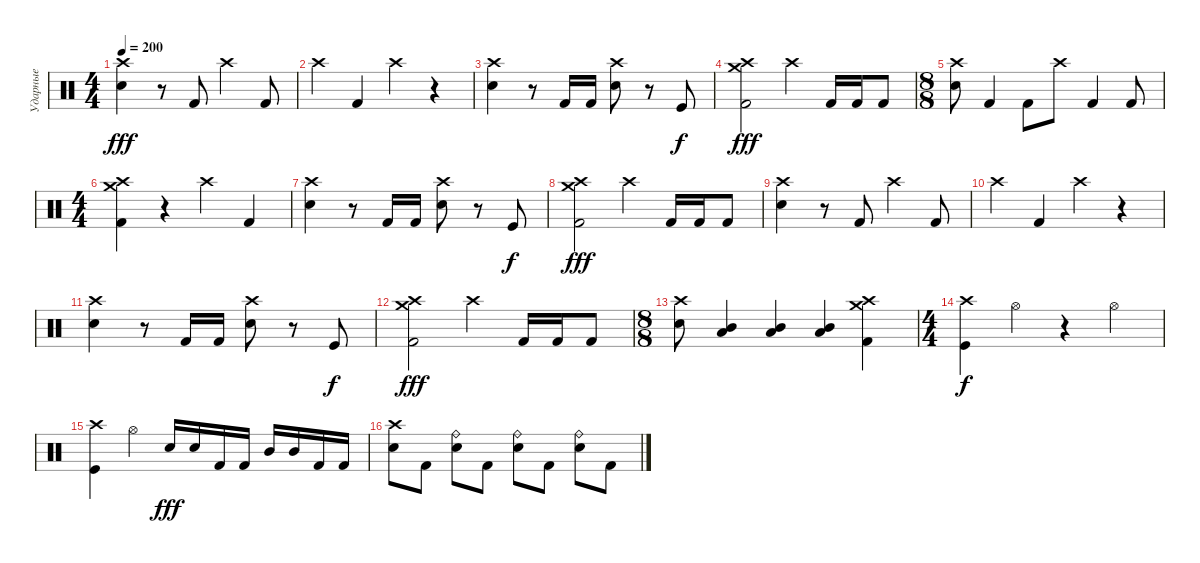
\track ("Ударные" "Ударные") {instrument percussion}
\staff {score}
\articulation defaults
\ts (4 4)
\tempo 200
\clef neutral
\ks c
("Crash high (hit)" "Electric Snare (hit)").4{dy fff} r.8 "Kick (hit) 2".8 "Crash high (hit)".4 "Kick (hit) 2".8 |
"Crash high (hit)".4 "Kick (hit) 2".4 "Crash high (hit)".4 r.4 |
("Crash high (hit)" "Electric Snare (hit)").4 r.8 "Kick (hit) 2".16 "Kick (hit) 2".16 ("Crash high (hit)" "Electric Snare (hit)").8 r.8 "Kick (hit)".8{dy f} |
("Crash high (hit)" "Kick (hit) 2" "Crash medium (hit)").2{dy fff} "Crash high (hit)".4 "Kick (hit) 2".16 "Kick (hit) 2".16 "Kick (hit) 2".8 |
\ts (8 8)
("Crash high (hit)" "Electric Snare (hit)").8 "Kick (hit) 2".4 "Kick (hit) 2".8 "Crash high (hit)".8 "Kick (hit) 2".4 "Kick (hit) 2".8 |
\ts (4 4)
("Crash high (hit)" "Crash medium (hit)" "Kick (hit) 2").4 r.4 "Crash high (hit)".4 "Kick (hit) 2".4 |
("Crash high (hit)" "Electric Snare (hit)").4 r.8 "Kick (hit) 2".16 "Kick (hit) 2".16 ("Crash high (hit)" "Electric Snare (hit)").8 r.8 "Kick (hit)".8{dy f} |
("Crash high (hit)" "Kick (hit) 2" "Crash medium (hit)").2{dy fff} "Crash high (hit)".4 "Kick (hit) 2".16 "Kick (hit) 2".16 "Kick (hit) 2".8 |
("Crash high (hit)" "Electric Snare (hit)").4 r.8 "Kick (hit) 2".8 "Crash high (hit)".4 "Kick (hit) 2".8 |
"Crash high (hit)".4 "Kick (hit) 2".4 "Crash high (hit)".4 r.4 |
("Crash high (hit)" "Electric Snare (hit)").4 r.8 "Kick (hit) 2".16 "Kick (hit) 2".16 ("Crash high (hit)" "Electric Snare (hit)").8 r.8 "Kick (hit)".8{dy f} |
("Crash high (hit)" "Kick (hit) 2" "Crash medium (hit)").2{dy fff} "Crash high (hit)".4 "Kick (hit) 2".16 "Kick (hit) 2".16 "Kick (hit) 2".8 |
\ts (8 8)
("Crash high (hit)" "Electric Snare (hit)").8 ("Mid Tom (hit)" "Low Tom (hit)").4 ("Mid Tom (hit)" "Low Tom (hit)").4 ("Mid Tom (hit)" "Low Tom (hit)").4 ("Crash high (hit)" "Kick (hit) 2" "Crash medium (hit)").4 |
\ts (4 4)
("Kick (hit)" "Crash high (hit)").4{dy f} "Hi-Hat (open)".4 r.4 "Hi-Hat (open)".4 |
("Kick (hit)" "Crash high (hit)").4 "Hi-Hat (open)".4 "Electric Snare (hit)".16{dy fff} "Electric Snare (hit)".16 "Kick (hit) 2".16 "Kick (hit) 2".16 "Mid Tom (hit)".16 "Mid Tom (hit)".16 "Kick (hit) 2".16 "Kick (hit) 2".16 |
("Electric Snare (hit)" "Crash high (hit)").8 "Kick (hit) 2".8 ("Ride (bell)" "Electric Snare (hit)").8 "Kick (hit) 2".8 ("Ride (bell)" "Electric Snare (hit)").8 "Kick (hit) 2".8 ("Ride (bell)" "Electric Snare (hit)").8 "Kick (hit) 2".8
